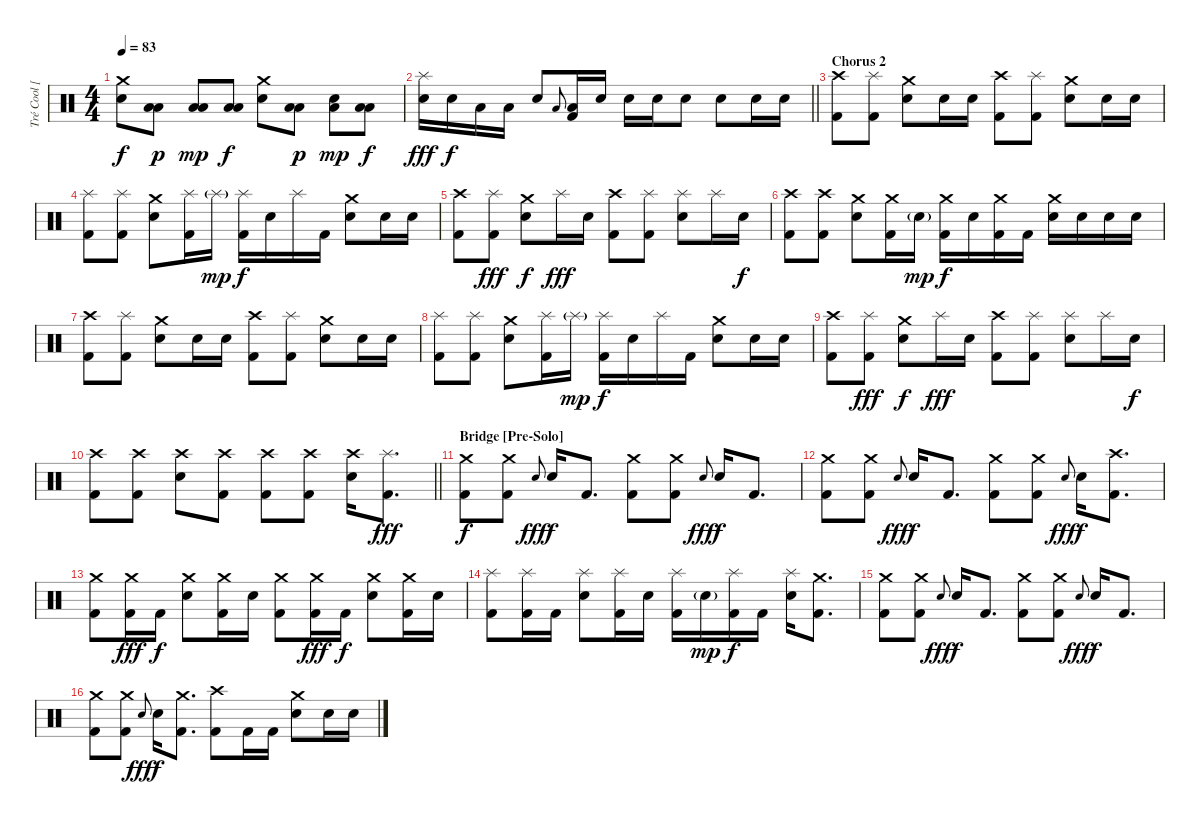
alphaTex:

\track ("Tré Cool [Drums]" "Tré Cool [") {instrument percussion}
\staff {score}
\articulation defaults
\ts (4 4)
\tempo 83
\clef neutral
\ks c
("Crash medium (hit)" "Electric Snare (hit)").8{dy f} ("Low Floor Tom (hit)" "Low Tom (hit)").8{dy p} ("Low Floor Tom (hit)" "Low Tom (hit)").8{dy mp} ("Low Floor Tom (hit)" "Low Tom (hit)").8{dy f} ("Crash medium (hit)" "Electric Snare (hit)").8 ("Low Floor Tom (hit)" "Low Tom (hit)").8{dy p} ("Low Floor Tom (hit)" "Electric Snare (hit)").8{dy mp} ("Low Floor Tom (hit)" "Low Tom (hit)").8{dy f} |
\barLineRight lightlight
("Splash (hit)" "Electric Snare (hit)").16{dy fff} "Electric Snare (hit)".16{dy f} "Low Tom (hit)".16 "Low Floor Tom (hit)".16 "Electric Snare (hit)".8 "Low Floor Tom (hit)".8{gr onbeat} ("Low Floor Tom (hit)" "Kick (hit) 2").16 "Electric Snare (hit)".16 "Electric Snare (hit)".16 "Electric Snare (hit)".16 "Electric Snare (hit)".8 "Electric Snare (hit)".8 "Electric Snare (hit)".16 "Electric Snare (hit)".16 |
\section ("" "Chorus 2")
("Crash high (hit)" "Kick (hit) 2").8 ("Splash (hit)" "Kick (hit) 2").8 ("Crash medium (hit)" "Electric Snare (hit)").8 "Electric Snare (hit)".16 "Electric Snare (hit)".16 ("Crash high (hit)" "Kick (hit) 2").8 ("Splash (hit)" "Kick (hit) 2").8 ("Crash medium (hit)" "Electric Snare (hit)").8 "Electric Snare (hit)".16 "Electric Snare (hit)".16 |
("Splash (hit)" "Kick (hit) 2").8 ("Splash (hit)" "Kick (hit) 2").8 ("Crash medium (hit)" "Electric Snare (hit)").8 ("Splash (hit)" "Kick (hit) 2").16 "Splash (hit)"{g}.16{dy mp} ("Splash (hit)" "Kick (hit) 2").16{dy f} "Electric Snare (hit)".16 "Splash (hit)".16 "Kick (hit) 2".16 ("Crash medium (hit)" "Electric Snare (hit)").8 "Electric Snare (hit)".16 "Electric Snare (hit)".16 |
("Crash high (hit)" "Kick (hit) 2").8 ("Splash (hit)" "Kick (hit) 2").8{dy fff} ("Crash medium (hit)" "Electric Snare (hit)").8{dy f} "Splash (hit)".16{dy fff} "Electric Snare (hit)".16 ("Crash high (hit)" "Kick (hit) 2").8 ("Splash (hit)" "Kick (hit) 2").8 ("Splash (hit)" "Electric Snare (hit)").8 "Splash (hit)".16 "Electric Snare (hit)".16{dy f} |
("Crash high (hit)" "Kick (hit) 2").8 ("Crash high (hit)" "Kick (hit) 2").8 ("Crash medium (hit)" "Electric Snare (hit)").8 ("Crash medium (hit)" "Kick (hit) 2").16 "Electric Snare (hit)"{g}.16{dy mp} ("Crash medium (hit)" "Kick (hit) 2").16{dy f} "Electric Snare (hit)".16 ("Crash medium (hit)" "Kick (hit) 2").16 "Kick (hit) 2".16 ("Crash medium (hit)" "Electric Snare (hit)").16 "Electric Snare (hit)".16 "Electric Snare (hit)".16 "Electric Snare (hit)".16 |
("Crash high (hit)" "Kick (hit) 2").8 ("Splash (hit)" "Kick (hit) 2").8 ("Crash medium (hit)" "Electric Snare (hit)").8 "Electric Snare (hit)".16 "Electric Snare (hit)".16 ("Crash high (hit)" "Kick (hit) 2").8 ("Splash (hit)" "Kick (hit) 2").8 ("Crash medium (hit)" "Electric Snare (hit)").8 "Electric Snare (hit)".16 "Electric Snare (hit)".16 |
("Splash (hit)" "Kick (hit) 2").8 ("Splash (hit)" "Kick (hit) 2").8 ("Crash medium (hit)" "Electric Snare (hit)").8 ("Splash (hit)" "Kick (hit) 2").16 "Splash (hit)"{g}.16{dy mp} ("Splash (hit)" "Kick (hit) 2").16{dy f} "Electric Snare (hit)".16 "Splash (hit)".16 "Kick (hit) 2".16 ("Crash medium (hit)" "Electric Snare (hit)").8 "Electric Snare (hit)".16 "Electric Snare (hit)".16 |
("Crash high (hit)" "Kick (hit) 2").8 ("Splash (hit)" "Kick (hit) 2").8{dy fff} ("Crash medium (hit)" "Electric Snare (hit)").8{dy f} "Splash (hit)".16{dy fff} "Electric Snare (hit)".16 ("Crash high (hit)" "Kick (hit) 2").8 ("Splash (hit)" "Kick (hit) 2").8 ("Splash (hit)" "Electric Snare (hit)").8 "Splash (hit)".16 "Electric Snare (hit)".16{dy f} |
\barLineRight lightlight
("Crash high (hit)" "Kick (hit) 2").8 ("Crash high (hit)" "Kick (hit) 2").8 ("Crash high (hit)" "Electric Snare (hit)").8 ("Crash high (hit)" "Kick (hit) 2").8 ("Crash high (hit)" "Kick (hit) 2").8 ("Crash high (hit)" "Kick (hit) 2").8 ("Crash high (hit)" "Electric Snare (hit)").16 ("Splash (hit)" "Kick (hit) 2").8{d dy fff} |
\section ("" "Bridge [Pre-Solo]")
("Crash medium (hit)" "Kick (hit) 2").8{dy f} ("Crash medium (hit)" "Kick (hit) 2").8 "Electric Snare (hit)".8{gr onbeat dy fff} "Electric Snare (hit)".16{dy f} "Kick (hit) 2".8{d} ("Crash medium (hit)" "Kick (hit) 2").8 ("Crash medium (hit)" "Kick (hit) 2").8 "Electric Snare (hit)".8{gr onbeat dy fff} "Electric Snare (hit)".16{dy f} "Kick (hit) 2".8{d} |
("Crash medium (hit)" "Kick (hit) 2").8 ("Crash medium (hit)" "Kick (hit) 2").8 "Electric Snare (hit)".8{gr onbeat dy fff} "Electric Snare (hit)".16{dy f} "Kick (hit) 2".8{d} ("Crash medium (hit)" "Kick (hit) 2").8 ("Crash medium (hit)" "Kick (hit) 2").8 "Electric Snare (hit)".8{gr onbeat dy fff} "Electric Snare (hit)".16{dy f} ("Crash high (hit)" "Kick (hit) 2").8{d} |
("Crash medium (hit)" "Kick (hit) 2").8 ("Crash medium (hit)" "Kick (hit) 2").16{dy fff} "Kick (hit) 2".16{dy f} ("Crash medium (hit)" "Electric Snare (hit)").8 ("Crash medium (hit)" "Kick (hit) 2").16 "Electric Snare (hit)".16 ("Crash medium (hit)" "Kick (hit) 2").8 ("Crash medium (hit)" "Kick (hit) 2").16{dy fff} "Kick (hit) 2".16{dy f} ("Crash medium (hit)" "Electric Snare (hit)").8 ("Crash medium (hit)" "Kick (hit) 2").16 "Electric Snare (hit)".16 |
("Splash (hit)" "Kick (hit) 2").8 ("Splash (hit)" "Kick (hit) 2").16 "Kick (hit) 2".16 ("Splash (hit)" "Electric Snare (hit)").8 ("Splash (hit)" "Kick (hit) 2").16 "Electric Snare (hit)".16 ("Splash (hit)" "Kick (hit) 2").16 "Electric Snare (hit)"{g}.16{dy mp} ("Splash (hit)" "Kick (hit) 2").16{dy f} "Kick (hit) 2".16 ("Splash (hit)" "Electric Snare (hit)").16 ("Crash medium (hit)" "Kick (hit) 2").8{d} |
("Crash medium (hit)" "Kick (hit) 2").8 ("Crash medium (hit)" "Kick (hit) 2").8 "Electric Snare (hit)".8{gr onbeat dy fff} "Electric Snare (hit)".16{dy f} "Kick (hit) 2".8{d} ("Crash medium (hit)" "Kick (hit) 2").8 ("Crash medium (hit)" "Kick (hit) 2").8 "Electric Snare (hit)".8{gr onbeat dy fff} "Electric Snare (hit)".16{dy f} "Kick (hit) 2".8{d} |
("Crash medium (hit)" "Kick (hit) 2").8 ("Crash medium (hit)" "Kick (hit) 2").8 "Electric Snare (hit)".8{gr onbeat dy fff} "Electric Snare (hit)".16{dy f} ("Crash medium (hit)" "Kick (hit) 2").8{d} ("Crash high (hit)" "Kick (hit) 2").8 "Kick (hit) 2".16 "Kick (hit) 2".16 ("Crash medium (hit)" "Electric Snare (hit)").8 "Electric Snare (hit)".16 "Electric Snare (hit)".16
